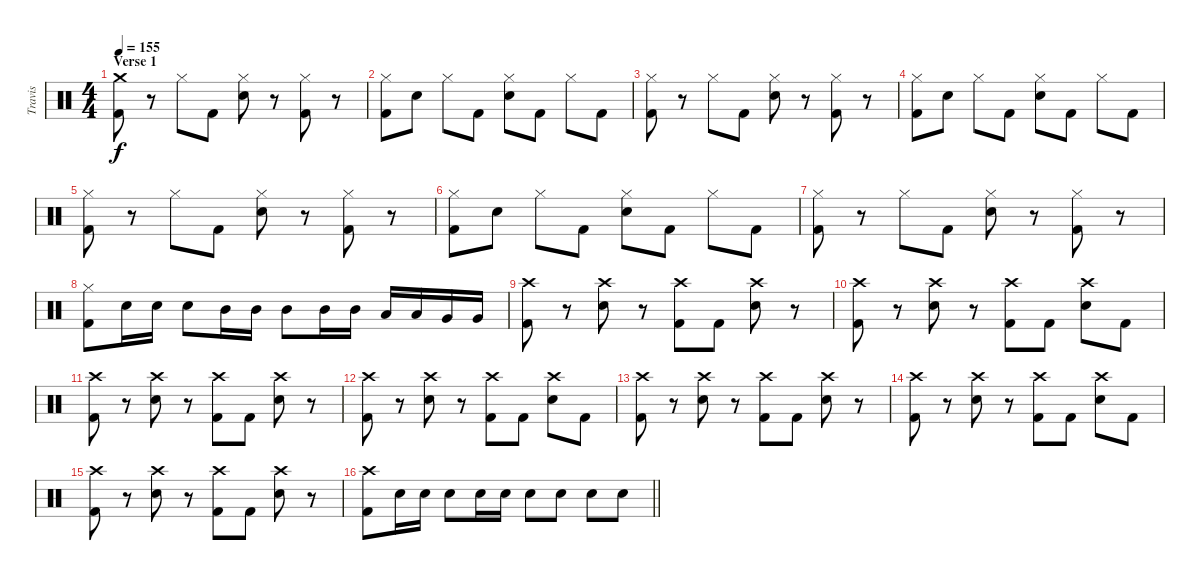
\track ("Travis" "Travis") {instrument percussion}
\staff {score}
\articulation defaults
\ts (4 4)
\section ("" "Verse 1")
\tempo 155
\clef neutral
\ks c
("Crash medium (hit)" "Kick (hit) 2").8{dy f} r.8 "Hi-Hat (closed)".8 "Kick (hit) 2".8 ("Hi-Hat (closed)" "Electric Snare (hit)").8 r.8 ("Hi-Hat (closed)" "Kick (hit) 2").8 r.8 |
("Hi-Hat (closed)" "Kick (hit) 2").8 "Electric Snare (hit)".8 "Hi-Hat (closed)".8 "Kick (hit) 2".8 ("Hi-Hat (closed)" "Electric Snare (hit)").8 "Kick (hit) 2".8 "Hi-Hat (closed)".8 "Kick (hit) 2".8 |
("Hi-Hat (closed)" "Kick (hit) 2").8 r.8 "Hi-Hat (closed)".8 "Kick (hit) 2".8 ("Hi-Hat (closed)" "Electric Snare (hit)").8 r.8 ("Hi-Hat (closed)" "Kick (hit) 2").8 r.8 |
("Hi-Hat (closed)" "Kick (hit) 2").8 "Electric Snare (hit)".8 "Hi-Hat (closed)".8 "Kick (hit) 2".8 ("Hi-Hat (closed)" "Electric Snare (hit)").8 "Kick (hit) 2".8 "Hi-Hat (closed)".8 "Kick (hit) 2".8 |
("Hi-Hat (closed)" "Kick (hit) 2").8 r.8 "Hi-Hat (closed)".8 "Kick (hit) 2".8 ("Hi-Hat (closed)" "Electric Snare (hit)").8 r.8 ("Hi-Hat (closed)" "Kick (hit) 2").8 r.8 |
("Hi-Hat (closed)" "Kick (hit) 2").8 "Electric Snare (hit)".8 "Hi-Hat (closed)".8 "Kick (hit) 2".8 ("Hi-Hat (closed)" "Electric Snare (hit)").8 "Kick (hit) 2".8 "Hi-Hat (closed)".8 "Kick (hit) 2".8 |
("Hi-Hat (closed)" "Kick (hit) 2").8 r.8 "Hi-Hat (closed)".8 "Kick (hit) 2".8 ("Hi-Hat (closed)" "Electric Snare (hit)").8 r.8 ("Hi-Hat (closed)" "Kick (hit) 2").8 r.8 |
("Hi-Hat (closed)" "Kick (hit) 2").8 "Electric Snare (hit)".16 "Electric Snare (hit)".16 "Electric Snare (hit)".8 "Mid Tom (hit)".16 "Mid Tom (hit)".16 "Mid Tom (hit)".8 "Mid Tom (hit)".16 "Mid Tom (hit)".16 "Low Tom (hit)".16 "Low Tom (hit)".16 "Very Low Tom (hit)".16 "Very Low Tom (hit)".16 |
("Crash high (hit)" "Kick (hit) 2").8 r.8 ("Crash high (hit)" "Electric Snare (hit)").8 r.8 ("Crash high (hit)" "Kick (hit) 2").8 "Kick (hit) 2".8 ("Crash high (hit)" "Electric Snare (hit)").8 r.8 |
("Crash high (hit)" "Kick (hit) 2").8 r.8 ("Crash high (hit)" "Electric Snare (hit)").8 r.8 ("Crash high (hit)" "Kick (hit) 2").8 "Kick (hit) 2".8 ("Crash high (hit)" "Electric Snare (hit)").8 "Kick (hit) 2".8 |
("Crash high (hit)" "Kick (hit) 2").8 r.8 ("Crash high (hit)" "Electric Snare (hit)").8 r.8 ("Crash high (hit)" "Kick (hit) 2").8 "Kick (hit) 2".8 ("Crash high (hit)" "Electric Snare (hit)").8 r.8 |
("Crash high (hit)" "Kick (hit) 2").8 r.8 ("Crash high (hit)" "Electric Snare (hit)").8 r.8 ("Crash high (hit)" "Kick (hit) 2").8 "Kick (hit) 2".8 ("Crash high (hit)" "Electric Snare (hit)").8 "Kick (hit) 2".8 |
("Crash high (hit)" "Kick (hit) 2").8 r.8 ("Crash high (hit)" "Electric Snare (hit)").8 r.8 ("Crash high (hit)" "Kick (hit) 2").8 "Kick (hit) 2".8 ("Crash high (hit)" "Electric Snare (hit)").8 r.8 |
("Crash high (hit)" "Kick (hit) 2").8 r.8 ("Crash high (hit)" "Electric Snare (hit)").8 r.8 ("Crash high (hit)" "Kick (hit) 2").8 "Kick (hit) 2".8 ("Crash high (hit)" "Electric Snare (hit)").8 "Kick (hit) 2".8 |
("Crash high (hit)" "Kick (hit) 2").8 r.8 ("Crash high (hit)" "Electric Snare (hit)").8 r.8 ("Crash high (hit)" "Kick (hit) 2").8 "Kick (hit) 2".8 ("Crash high (hit)" "Electric Snare (hit)").8 r.8 |
\barLineRight lightlight
("Crash high (hit)" "Kick (hit) 2").8 "Electric Snare (hit)".16 "Electric Snare (hit)".16 "Electric Snare (hit)".8 "Electric Snare (hit)".16 "Electric Snare (hit)".16 "Electric Snare (hit)".8 "Electric Snare (hit)".8 "Electric Snare (hit)".8 "Electric Snare (hit)".8
